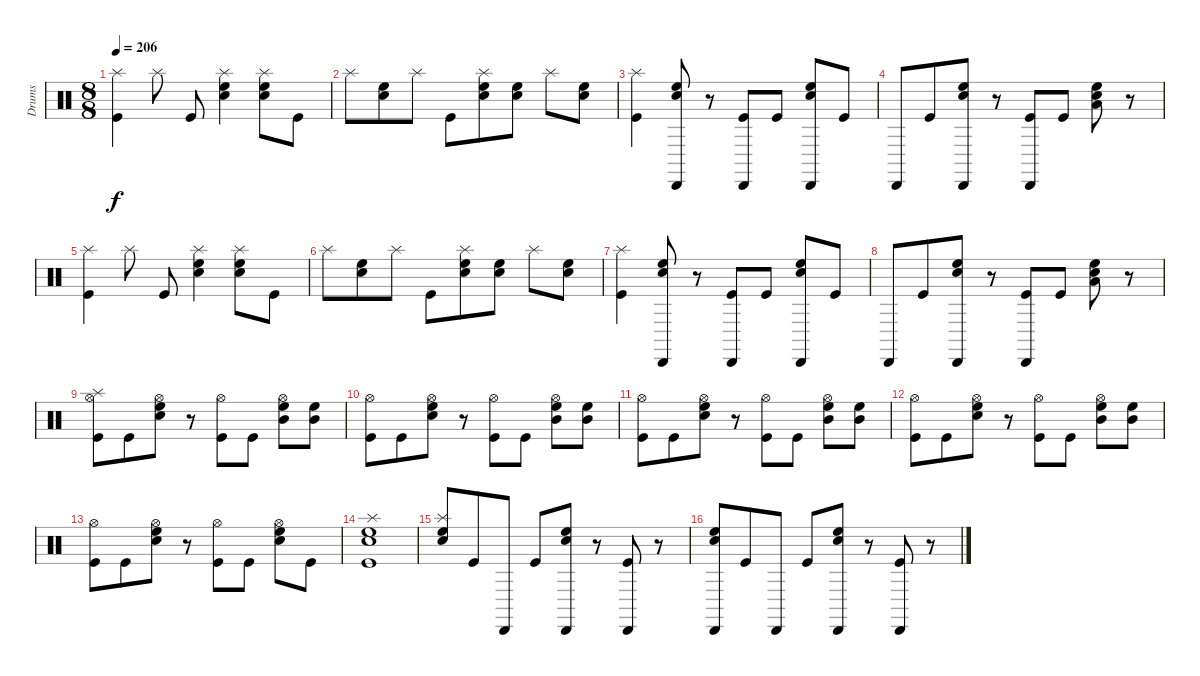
\track ("Drums" "Drums") {instrument percussion}
\staff {score}
\articulation defaults
\ts (8 8)
\tempo 206
\clef neutral
\ks c
("Kick (hit)" "Splash (hit)").4{dy f} "Splash (hit)".8 "Kick (hit)".8 ("Splash (hit)" "High Floor Tom (hit)" "Electric Snare (hit)").4 ("Splash (hit)" "Electric Snare (hit)" "High Floor Tom (hit)").8 "Kick (hit)".8 |
"Splash (hit)".8 ("High Floor Tom (hit)" "Electric Snare (hit)").8 "Splash (hit)".8 "Kick (hit)".8 ("Splash (hit)" "High Floor Tom (hit)" "Electric Snare (hit)").8 ("High Floor Tom (hit)" "Electric Snare (hit)").8 "Splash (hit)".8 ("High Floor Tom (hit)" "Electric Snare (hit)").8 |
("Splash (hit)" "Kick (hit)").4 ("Cabasa (hit)" "High Floor Tom (hit)" "Electric Snare (hit)").8 r.8 ("Cabasa (hit)" "Kick (hit)").8 "Kick (hit)".8 ("Cabasa (hit)" "High Floor Tom (hit)" "Electric Snare (hit)").8 "Kick (hit)".8 |
"Cabasa (hit)".8 "Kick (hit)".8 ("Cabasa (hit)" "High Floor Tom (hit)" "Electric Snare (hit)").8 r.8 ("Cabasa (hit)" "Kick (hit)").8 "Kick (hit)".8 ("Low Tom (hit)" "High Floor Tom (hit)" "Electric Snare (hit)").8 r.8 |
("Splash (hit)" "Kick (hit)").4 "Splash (hit)".8 "Kick (hit)".8 ("Splash (hit)" "High Floor Tom (hit)" "Electric Snare (hit)").4 ("Splash (hit)" "Electric Snare (hit)" "High Floor Tom (hit)").8 "Kick (hit)".8 |
"Splash (hit)".8 ("High Floor Tom (hit)" "Electric Snare (hit)").8 "Splash (hit)".8 "Kick (hit)".8 ("Splash (hit)" "High Floor Tom (hit)" "Electric Snare (hit)").8 ("High Floor Tom (hit)" "Electric Snare (hit)").8 "Splash (hit)".8 ("High Floor Tom (hit)" "Electric Snare (hit)").8 |
("Splash (hit)" "Kick (hit)").4 ("Cabasa (hit)" "High Floor Tom (hit)" "Electric Snare (hit)").8 r.8 ("Cabasa (hit)" "Kick (hit)").8 "Kick (hit)".8 ("Cabasa (hit)" "High Floor Tom (hit)" "Electric Snare (hit)").8 "Kick (hit)".8 |
"Cabasa (hit)".8 "Kick (hit)".8 ("Cabasa (hit)" "High Floor Tom (hit)" "Electric Snare (hit)").8 r.8 ("Cabasa (hit)" "Kick (hit)").8 "Kick (hit)".8 ("Low Tom (hit)" "High Floor Tom (hit)" "Electric Snare (hit)").8 r.8 |
("Splash (hit)" "Hi-Hat (open)" "Kick (hit)").8 "Kick (hit)".8 ("Hi-Hat (open)" "High Floor Tom (hit)" "Electric Snare (hit)").8 r.8 ("Hi-Hat (open)" "Kick (hit)").8 "Kick (hit)".8 ("Hi-Hat (open)" "Mid Tom (hit)" "High Floor Tom (hit)").8 ("Mid Tom (hit)" "High Floor Tom (hit)").8 |
("Hi-Hat (open)" "Kick (hit)").8 "Kick (hit)".8 ("Hi-Hat (open)" "High Floor Tom (hit)" "Electric Snare (hit)").8 r.8 ("Hi-Hat (open)" "Kick (hit)").8 "Kick (hit)".8 ("Hi-Hat (open)" "Mid Tom (hit)" "High Floor Tom (hit)").8 ("Mid Tom (hit)" "High Floor Tom (hit)").8 |
("Hi-Hat (open)" "Kick (hit)").8 "Kick (hit)".8 ("Hi-Hat (open)" "High Floor Tom (hit)" "Electric Snare (hit)").8 r.8 ("Hi-Hat (open)" "Kick (hit)").8 "Kick (hit)".8 ("Hi-Hat (open)" "Mid Tom (hit)" "High Floor Tom (hit)").8 ("Mid Tom (hit)" "High Floor Tom (hit)").8 |
("Hi-Hat (open)" "Kick (hit)").8 "Kick (hit)".8 ("Hi-Hat (open)" "High Floor Tom (hit)" "Electric Snare (hit)").8 r.8 ("Hi-Hat (open)" "Kick (hit)").8 "Kick (hit)".8 ("Hi-Hat (open)" "Mid Tom (hit)" "High Floor Tom (hit)").8 ("Mid Tom (hit)" "High Floor Tom (hit)").8 |
("Hi-Hat (open)" "Kick (hit)").8 "Kick (hit)".8 ("Hi-Hat (open)" "High Floor Tom (hit)" "Electric Snare (hit)").8 r.8 ("Hi-Hat (open)" "Kick (hit)").8 "Kick (hit)".8 ("High Floor Tom (hit)" "Electric Snare (hit)" "Hi-Hat (open)").8 "Kick (hit)".8 |
("Splash (hit)" "High Floor Tom (hit)" "Electric Snare (hit)" "Kick (hit)").1 |
("Splash (hit)" "High Floor Tom (hit)" "Electric Snare (hit)").8 "Kick (hit)".8 "Cabasa (hit)".8 "Kick (hit)".8 ("Cabasa (hit)" "High Floor Tom (hit)" "Electric Snare (hit)").8 r.8 ("Cabasa (hit)" "Kick (hit)").8 r.8 |
("Cabasa (hit)" "High Floor Tom (hit)" "Electric Snare (hit)").8 "Kick (hit)".8 "Cabasa (hit)".8 "Kick (hit)".8 ("Cabasa (hit)" "High Floor Tom (hit)" "Electric Snare (hit)").8 r.8 ("Cabasa (hit)" "Kick (hit)").8 r.8
